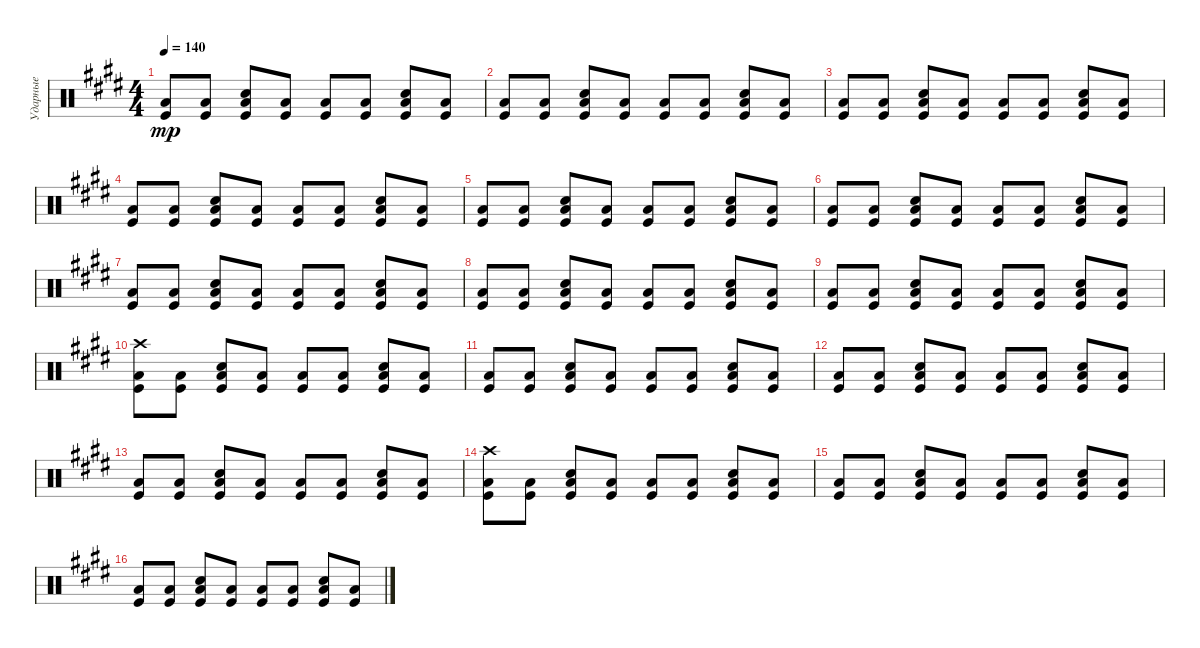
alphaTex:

\track ("Ударные" "Ударные") {instrument percussion}
\staff {score}
\articulation defaults
\ts (4 4)
\tempo 140
\clef neutral
\ks c#minor
("Kick (hit)" "Low Floor Tom (hit)").8{dy mp} ("Kick (hit)" "Low Floor Tom (hit)").8 ("Kick (hit)" "Low Floor Tom (hit)" "Snare (hit) 2").8 ("Kick (hit)" "Low Floor Tom (hit)").8 ("Kick (hit)" "Low Floor Tom (hit)").8 ("Kick (hit)" "Low Floor Tom (hit)").8 ("Kick (hit)" "Low Floor Tom (hit)" "Snare (hit) 2").8 ("Kick (hit)" "Low Floor Tom (hit)").8 |
("Kick (hit)" "Low Floor Tom (hit)").8 ("Kick (hit)" "Low Floor Tom (hit)").8 ("Kick (hit)" "Low Floor Tom (hit)" "Snare (hit) 2").8 ("Kick (hit)" "Low Floor Tom (hit)").8 ("Kick (hit)" "Low Floor Tom (hit)").8 ("Kick (hit)" "Low Floor Tom (hit)").8 ("Kick (hit)" "Low Floor Tom (hit)" "Snare (hit) 2").8 ("Kick (hit)" "Low Floor Tom (hit)").8 |
("Kick (hit)" "Low Floor Tom (hit)").8 ("Kick (hit)" "Low Floor Tom (hit)").8 ("Kick (hit)" "Low Floor Tom (hit)" "Snare (hit) 2").8 ("Kick (hit)" "Low Floor Tom (hit)").8 ("Kick (hit)" "Low Floor Tom (hit)").8 ("Kick (hit)" "Low Floor Tom (hit)").8 ("Kick (hit)" "Low Floor Tom (hit)" "Snare (hit) 2").8 ("Kick (hit)" "Low Floor Tom (hit)").8 |
("Kick (hit)" "Low Floor Tom (hit)").8 ("Kick (hit)" "Low Floor Tom (hit)").8 ("Kick (hit)" "Low Floor Tom (hit)" "Snare (hit) 2").8 ("Kick (hit)" "Low Floor Tom (hit)").8 ("Kick (hit)" "Low Floor Tom (hit)").8 ("Kick (hit)" "Low Floor Tom (hit)").8 ("Kick (hit)" "Low Floor Tom (hit)" "Snare (hit) 2").8 ("Kick (hit)" "Low Floor Tom (hit)").8 |
("Kick (hit)" "Low Floor Tom (hit)").8 ("Kick (hit)" "Low Floor Tom (hit)").8 ("Kick (hit)" "Low Floor Tom (hit)" "Snare (hit) 2").8 ("Kick (hit)" "Low Floor Tom (hit)").8 ("Kick (hit)" "Low Floor Tom (hit)").8 ("Kick (hit)" "Low Floor Tom (hit)").8 ("Kick (hit)" "Low Floor Tom (hit)" "Snare (hit) 2").8 ("Kick (hit)" "Low Floor Tom (hit)").8 |
("Kick (hit)" "Low Floor Tom (hit)").8 ("Kick (hit)" "Low Floor Tom (hit)").8 ("Kick (hit)" "Low Floor Tom (hit)" "Snare (hit) 2").8 ("Kick (hit)" "Low Floor Tom (hit)").8 ("Kick (hit)" "Low Floor Tom (hit)").8 ("Kick (hit)" "Low Floor Tom (hit)").8 ("Kick (hit)" "Low Floor Tom (hit)" "Snare (hit) 2").8 ("Kick (hit)" "Low Floor Tom (hit)").8 |
("Kick (hit)" "Low Floor Tom (hit)").8 ("Kick (hit)" "Low Floor Tom (hit)").8 ("Kick (hit)" "Low Floor Tom (hit)" "Snare (hit) 2").8 ("Kick (hit)" "Low Floor Tom (hit)").8 ("Kick (hit)" "Low Floor Tom (hit)").8 ("Kick (hit)" "Low Floor Tom (hit)").8 ("Kick (hit)" "Low Floor Tom (hit)" "Snare (hit) 2").8 ("Kick (hit)" "Low Floor Tom (hit)").8 |
("Kick (hit)" "Low Floor Tom (hit)").8 ("Kick (hit)" "Low Floor Tom (hit)").8 ("Kick (hit)" "Low Floor Tom (hit)" "Snare (hit) 2").8 ("Kick (hit)" "Low Floor Tom (hit)").8 ("Kick (hit)" "Low Floor Tom (hit)").8 ("Kick (hit)" "Low Floor Tom (hit)").8 ("Kick (hit)" "Low Floor Tom (hit)" "Snare (hit) 2").8 ("Kick (hit)" "Low Floor Tom (hit)").8 |
("Kick (hit)" "Low Floor Tom (hit)").8 ("Kick (hit)" "Low Floor Tom (hit)").8 ("Kick (hit)" "Low Floor Tom (hit)" "Snare (hit) 2").8 ("Kick (hit)" "Low Floor Tom (hit)").8 ("Kick (hit)" "Low Floor Tom (hit)").8 ("Kick (hit)" "Low Floor Tom (hit)").8 ("Kick (hit)" "Low Floor Tom (hit)" "Snare (hit) 2").8 ("Kick (hit)" "Low Floor Tom (hit)").8 |
("Kick (hit)" "Low Floor Tom (hit)" "Crash high (hit)").8 ("Kick (hit)" "Low Floor Tom (hit)").8 ("Kick (hit)" "Low Floor Tom (hit)" "Snare (hit) 2").8 ("Kick (hit)" "Low Floor Tom (hit)").8 ("Kick (hit)" "Low Floor Tom (hit)").8 ("Kick (hit)" "Low Floor Tom (hit)").8 ("Kick (hit)" "Low Floor Tom (hit)" "Snare (hit) 2").8 ("Kick (hit)" "Low Floor Tom (hit)").8 |
("Kick (hit)" "Low Floor Tom (hit)").8 ("Kick (hit)" "Low Floor Tom (hit)").8 ("Kick (hit)" "Low Floor Tom (hit)" "Snare (hit) 2").8 ("Kick (hit)" "Low Floor Tom (hit)").8 ("Kick (hit)" "Low Floor Tom (hit)").8 ("Kick (hit)" "Low Floor Tom (hit)").8 ("Kick (hit)" "Low Floor Tom (hit)" "Snare (hit) 2").8 ("Kick (hit)" "Low Floor Tom (hit)").8 |
("Kick (hit)" "Low Floor Tom (hit)").8 ("Kick (hit)" "Low Floor Tom (hit)").8 ("Kick (hit)" "Low Floor Tom (hit)" "Snare (hit) 2").8 ("Kick (hit)" "Low Floor Tom (hit)").8 ("Kick (hit)" "Low Floor Tom (hit)").8 ("Kick (hit)" "Low Floor Tom (hit)").8 ("Kick (hit)" "Low Floor Tom (hit)" "Snare (hit) 2").8 ("Kick (hit)" "Low Floor Tom (hit)").8 |
("Kick (hit)" "Low Floor Tom (hit)").8 ("Kick (hit)" "Low Floor Tom (hit)").8 ("Kick (hit)" "Low Floor Tom (hit)" "Snare (hit) 2").8 ("Kick (hit)" "Low Floor Tom (hit)").8 ("Kick (hit)" "Low Floor Tom (hit)").8 ("Kick (hit)" "Low Floor Tom (hit)").8 ("Kick (hit)" "Low Floor Tom (hit)" "Snare (hit) 2").8 ("Kick (hit)" "Low Floor Tom (hit)").8 |
("Kick (hit)" "Low Floor Tom (hit)" "Crash high (hit)").8 ("Kick (hit)" "Low Floor Tom (hit)").8 ("Kick (hit)" "Low Floor Tom (hit)" "Snare (hit) 2").8 ("Kick (hit)" "Low Floor Tom (hit)").8 ("Kick (hit)" "Low Floor Tom (hit)").8 ("Kick (hit)" "Low Floor Tom (hit)").8 ("Kick (hit)" "Low Floor Tom (hit)" "Snare (hit) 2").8 ("Kick (hit)" "Low Floor Tom (hit)").8 |
("Kick (hit)" "Low Floor Tom (hit)").8 ("Kick (hit)" "Low Floor Tom (hit)").8 ("Kick (hit)" "Low Floor Tom (hit)" "Snare (hit) 2").8 ("Kick (hit)" "Low Floor Tom (hit)").8 ("Kick (hit)" "Low Floor Tom (hit)").8 ("Kick (hit)" "Low Floor Tom (hit)").8 ("Kick (hit)" "Low Floor Tom (hit)" "Snare (hit) 2").8 ("Kick (hit)" "Low Floor Tom (hit)").8 |
("Kick (hit)" "Low Floor Tom (hit)").8 ("Kick (hit)" "Low Floor Tom (hit)").8 ("Kick (hit)" "Low Floor Tom (hit)" "Snare (hit) 2").8 ("Kick (hit)" "Low Floor Tom (hit)").8 ("Kick (hit)" "Low Floor Tom (hit)").8 ("Kick (hit)" "Low Floor Tom (hit)").8 ("Kick (hit)" "Low Floor Tom (hit)" "Snare (hit) 2").8 ("Kick (hit)" "Low Floor Tom (hit)").8
